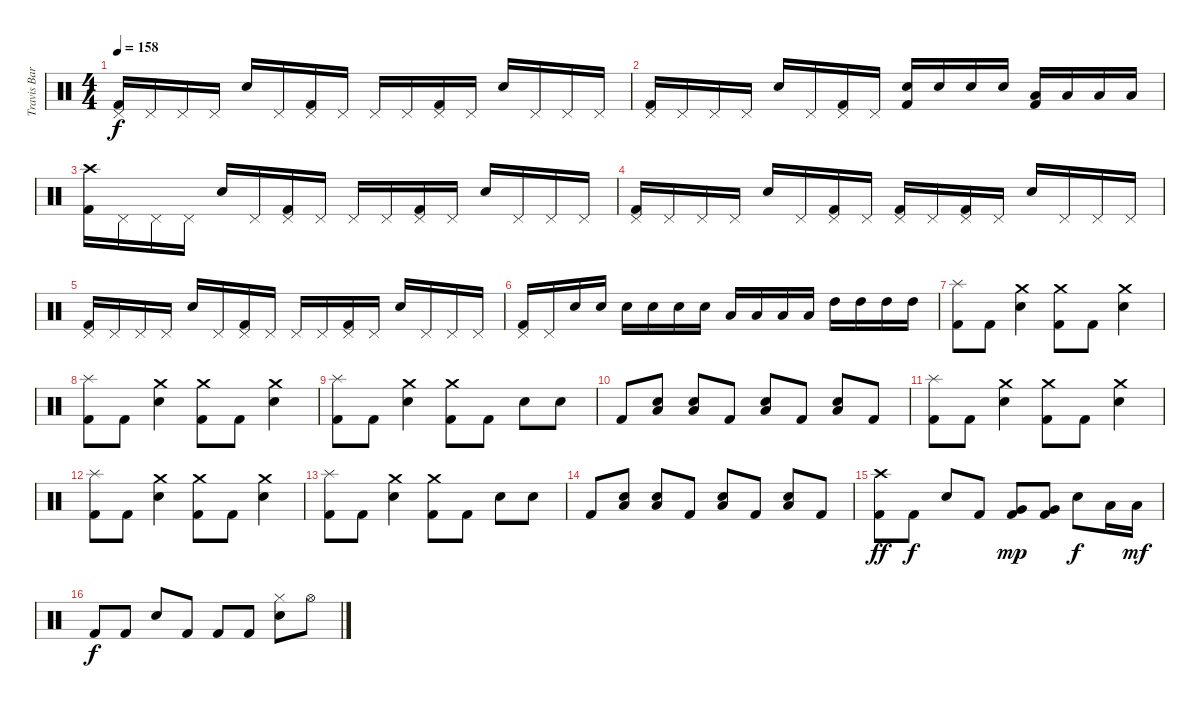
\track ("Travis Barker - Drums" "Travis Bar") {instrument percussion}
\staff {score}
\articulation defaults
\ts (4 4)
\tempo 158
\clef neutral
\ks c
("Pedal Hi-Hat (hit)" "Kick (hit) 2").16{dy f} "Pedal Hi-Hat (hit)".16 "Pedal Hi-Hat (hit)".16 "Pedal Hi-Hat (hit)".16 "Electric Snare (hit)".16 "Pedal Hi-Hat (hit)".16 ("Pedal Hi-Hat (hit)" "Kick (hit) 2").16 "Pedal Hi-Hat (hit)".16 "Pedal Hi-Hat (hit)".16 "Pedal Hi-Hat (hit)".16 ("Pedal Hi-Hat (hit)" "Kick (hit) 2").16 "Pedal Hi-Hat (hit)".16 "Electric Snare (hit)".16 "Pedal Hi-Hat (hit)".16 "Pedal Hi-Hat (hit)".16 "Pedal Hi-Hat (hit)".16 |
("Pedal Hi-Hat (hit)" "Kick (hit) 2").16 "Pedal Hi-Hat (hit)".16 "Pedal Hi-Hat (hit)".16 "Pedal Hi-Hat (hit)".16 "Electric Snare (hit)".16 "Pedal Hi-Hat (hit)".16 ("Pedal Hi-Hat (hit)" "Kick (hit) 2").16 "Pedal Hi-Hat (hit)".16 ("Electric Snare (hit)" "Kick (hit) 2").16 "Electric Snare (hit)".16 "Electric Snare (hit)".16 "Electric Snare (hit)".16 ("Low Tom (hit)" "Kick (hit) 2").16 "Low Tom (hit)".16 "Low Tom (hit)".16 "Low Tom (hit)".16 |
("Crash high (hit)" "Kick (hit) 2").16 "Pedal Hi-Hat (hit)".16 "Pedal Hi-Hat (hit)".16 "Pedal Hi-Hat (hit)".16 "Electric Snare (hit)".16 "Pedal Hi-Hat (hit)".16 ("Pedal Hi-Hat (hit)" "Kick (hit) 2").16 "Pedal Hi-Hat (hit)".16 "Pedal Hi-Hat (hit)".16 "Pedal Hi-Hat (hit)".16 ("Pedal Hi-Hat (hit)" "Kick (hit) 2").16 "Pedal Hi-Hat (hit)".16 "Electric Snare (hit)".16 "Pedal Hi-Hat (hit)".16 "Pedal Hi-Hat (hit)".16 "Pedal Hi-Hat (hit)".16 |
("Pedal Hi-Hat (hit)" "Kick (hit) 2").16 "Pedal Hi-Hat (hit)".16 "Pedal Hi-Hat (hit)".16 "Pedal Hi-Hat (hit)".16 "Electric Snare (hit)".16 "Pedal Hi-Hat (hit)".16 ("Pedal Hi-Hat (hit)" "Kick (hit) 2").16 "Pedal Hi-Hat (hit)".16 ("Pedal Hi-Hat (hit)" "Kick (hit) 2").16 "Pedal Hi-Hat (hit)".16 ("Pedal Hi-Hat (hit)" "Kick (hit) 2").16 "Pedal Hi-Hat (hit)".16 "Electric Snare (hit)".16 "Pedal Hi-Hat (hit)".16 "Pedal Hi-Hat (hit)".16 "Pedal Hi-Hat (hit)".16 |
("Pedal Hi-Hat (hit)" "Kick (hit) 2").16 "Pedal Hi-Hat (hit)".16 "Pedal Hi-Hat (hit)".16 "Pedal Hi-Hat (hit)".16 "Electric Snare (hit)".16 "Pedal Hi-Hat (hit)".16 ("Pedal Hi-Hat (hit)" "Kick (hit) 2").16 "Pedal Hi-Hat (hit)".16 "Pedal Hi-Hat (hit)".16 "Pedal Hi-Hat (hit)".16 ("Pedal Hi-Hat (hit)" "Kick (hit) 2").16 "Pedal Hi-Hat (hit)".16 "Electric Snare (hit)".16 "Pedal Hi-Hat (hit)".16 "Pedal Hi-Hat (hit)".16 "Pedal Hi-Hat (hit)".16 |
("Pedal Hi-Hat (hit)" "Kick (hit) 2").16 "Pedal Hi-Hat (hit)".16 "Electric Snare (hit)".16 "Electric Snare (hit)".16 "Electric Snare (hit)".16 "Electric Snare (hit)".16 "Electric Snare (hit)".16 "Electric Snare (hit)".16 "Low Tom (hit)".16 "Low Tom (hit)".16 "Low Tom (hit)".16 "Low Tom (hit)".16 "High Tom (hit)".16 "High Tom (hit)".16 "High Tom (hit)".16 "High Tom (hit)".16 |
("Splash (hit)" "Kick (hit) 2").8 "Kick (hit) 2".8 ("Crash medium (hit)" "Electric Snare (hit)").4 ("Crash medium (hit)" "Kick (hit) 2").8 "Kick (hit) 2".8 ("Crash medium (hit)" "Electric Snare (hit)").4 |
("Splash (hit)" "Kick (hit) 2").8 "Kick (hit) 2".8 ("Crash medium (hit)" "Electric Snare (hit)").4 ("Crash medium (hit)" "Kick (hit) 2").8 "Kick (hit) 2".8 ("Crash medium (hit)" "Electric Snare (hit)").4 |
("Splash (hit)" "Kick (hit) 2").8 "Kick (hit) 2".8 ("Crash medium (hit)" "Electric Snare (hit)").4 ("Crash medium (hit)" "Kick (hit) 2").8 "Kick (hit) 2".8 "Electric Snare (hit)".8 "Electric Snare (hit)".8 |
"Kick (hit) 2".8 ("Low Tom (hit)" "Electric Snare (hit)").8 ("Low Tom (hit)" "Electric Snare (hit)").8 "Kick (hit) 2".8 ("Low Tom (hit)" "Electric Snare (hit)").8 "Kick (hit) 2".8 ("Low Tom (hit)" "Electric Snare (hit)").8 "Kick (hit) 2".8 |
("Splash (hit)" "Kick (hit) 2").8 "Kick (hit) 2".8 ("Crash medium (hit)" "Electric Snare (hit)").4 ("Crash medium (hit)" "Kick (hit) 2").8 "Kick (hit) 2".8 ("Crash medium (hit)" "Electric Snare (hit)").4 |
("Splash (hit)" "Kick (hit) 2").8 "Kick (hit) 2".8 ("Crash medium (hit)" "Electric Snare (hit)").4 ("Crash medium (hit)" "Kick (hit) 2").8 "Kick (hit) 2".8 ("Crash medium (hit)" "Electric Snare (hit)").4 |
("Splash (hit)" "Kick (hit) 2").8 "Kick (hit) 2".8 ("Crash medium (hit)" "Electric Snare (hit)").4 ("Crash medium (hit)" "Kick (hit) 2").8 "Kick (hit) 2".8 "Electric Snare (hit)".8 "Electric Snare (hit)".8 |
"Kick (hit) 2".8 ("Low Tom (hit)" "Electric Snare (hit)").8 ("Low Tom (hit)" "Electric Snare (hit)").8 "Kick (hit) 2".8 ("Low Tom (hit)" "Electric Snare (hit)").8 "Kick (hit) 2".8 ("Low Tom (hit)" "Electric Snare (hit)").8 "Kick (hit) 2".8 |
("Crash high (hit)" "Kick (hit) 2").8{dy ff} "Kick (hit) 2".8{dy f} "Electric Snare (hit)".8 "Kick (hit) 2".8 ("Very Low Tom (hit)" "Kick (hit) 2").8{dy mp} ("Very Low Tom (hit)" "Kick (hit) 2").8 "Electric Snare (hit)".8{dy f} "Low Tom (hit)".16 "Low Tom (hit)".16{dy mf} |
"Kick (hit) 2".8{dy f} "Kick (hit) 2".8 "Electric Snare (hit)".8 "Kick (hit) 2".8 "Kick (hit) 2".8 "Kick (hit) 2".8 ("Hi-Hat (closed)" "Electric Snare (hit)").8 "Hi-Hat (open)".8
